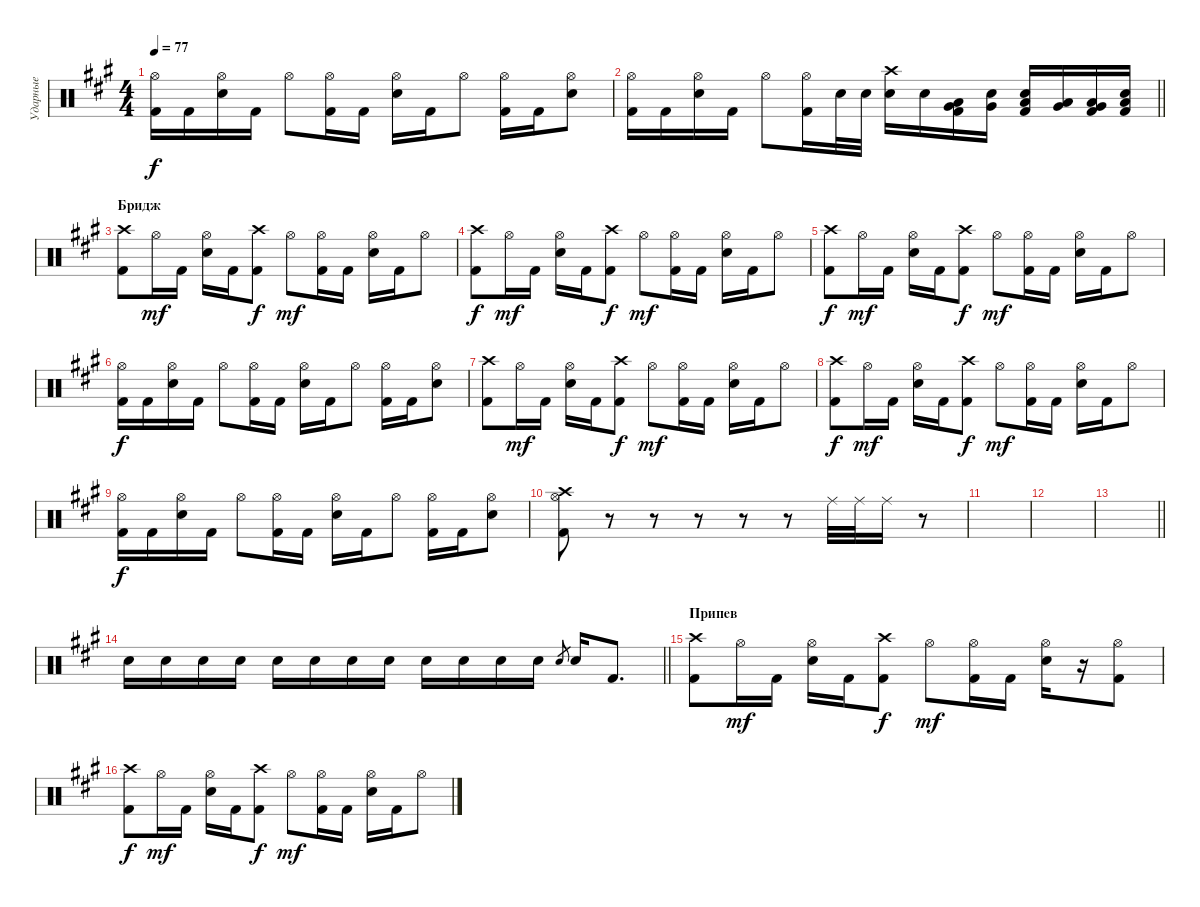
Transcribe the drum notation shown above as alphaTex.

\track ("Ударные" "Ударные") {instrument percussion}
\staff {score}
\articulation defaults
\ts (4 4)
\tempo 77
\clef neutral
\ks f#minor
("Hi-Hat (open)" "Kick (hit) 2").16{dy f} "Kick (hit) 2".16 ("Hi-Hat (open)" "Electric Snare (hit)").16 "Kick (hit) 2".16 "Hi-Hat (open)".8 ("Hi-Hat (open)" "Kick (hit) 2").16 "Kick (hit) 2".16 ("Hi-Hat (open)" "Electric Snare (hit)").16 "Kick (hit) 2".16 "Hi-Hat (open)".8 ("Hi-Hat (open)" "Kick (hit) 2").16 "Kick (hit) 2".16 ("Hi-Hat (open)" "Electric Snare (hit)").8 |
\barLineRight lightlight
("Hi-Hat (open)" "Kick (hit) 2").16 "Kick (hit) 2".16 ("Hi-Hat (open)" "Electric Snare (hit)").16 "Kick (hit) 2".16 "Hi-Hat (open)".8 ("Hi-Hat (open)" "Kick (hit) 2").16 "Electric Snare (hit)".32 "Electric Snare (hit)".32 ("Crash high (hit)" "Electric Snare (hit)").16 "Electric Snare (hit)".16 ("Very Low Tom (hit)" "Low Tom (hit)" "Kick (hit) 2").16 ("Very Low Tom (hit)" "Electric Snare (hit)").16 ("Low Floor Tom (hit)" "Electric Snare (hit)" "Kick (hit) 2").16 ("Low Floor Tom (hit)" "Very Low Tom (hit)").16 ("Very Low Tom (hit)" "Low Floor Tom (hit)" "Kick (hit) 2").16 ("Low Floor Tom (hit)" "Electric Snare (hit)" "Kick (hit) 2").16 |
\section ("" "Бридж")
("Crash high (hit)" "Kick (hit) 2").8 "Hi-Hat (open)".16{dy mf} "Kick (hit) 2".16 ("Hi-Hat (open)" "Electric Snare (hit)").16 "Kick (hit) 2".16 ("Crash high (hit)" "Kick (hit) 2").8{dy f} "Hi-Hat (open)".8{dy mf} ("Hi-Hat (open)" "Kick (hit) 2").16 "Kick (hit) 2".16 ("Hi-Hat (open)" "Electric Snare (hit)").16 "Kick (hit) 2".16 "Hi-Hat (open)".8 |
("Crash high (hit)" "Kick (hit) 2").8{dy f} "Hi-Hat (open)".16{dy mf} "Kick (hit) 2".16 ("Hi-Hat (open)" "Electric Snare (hit)").16 "Kick (hit) 2".16 ("Crash high (hit)" "Kick (hit) 2").8{dy f} "Hi-Hat (open)".8{dy mf} ("Hi-Hat (open)" "Kick (hit) 2").16 "Kick (hit) 2".16 ("Hi-Hat (open)" "Electric Snare (hit)").16 "Kick (hit) 2".16 "Hi-Hat (open)".8 |
("Crash high (hit)" "Kick (hit) 2").8{dy f} "Hi-Hat (open)".16{dy mf} "Kick (hit) 2".16 ("Hi-Hat (open)" "Electric Snare (hit)").16 "Kick (hit) 2".16 ("Crash high (hit)" "Kick (hit) 2").8{dy f} "Hi-Hat (open)".8{dy mf} ("Hi-Hat (open)" "Kick (hit) 2").16 "Kick (hit) 2".16 ("Hi-Hat (open)" "Electric Snare (hit)").16 "Kick (hit) 2".16 "Hi-Hat (open)".8 |
("Hi-Hat (open)" "Kick (hit) 2").16{dy f} "Kick (hit) 2".16 ("Hi-Hat (open)" "Electric Snare (hit)").16 "Kick (hit) 2".16 "Hi-Hat (open)".8 ("Hi-Hat (open)" "Kick (hit) 2").16 "Kick (hit) 2".16 ("Hi-Hat (open)" "Electric Snare (hit)").16 "Kick (hit) 2".16 "Hi-Hat (open)".8 ("Hi-Hat (open)" "Kick (hit) 2").16 "Kick (hit) 2".16 ("Hi-Hat (open)" "Electric Snare (hit)").8 |
("Crash high (hit)" "Kick (hit) 2").8 "Hi-Hat (open)".16{dy mf} "Kick (hit) 2".16 ("Hi-Hat (open)" "Electric Snare (hit)").16 "Kick (hit) 2".16 ("Crash high (hit)" "Kick (hit) 2").8{dy f} "Hi-Hat (open)".8{dy mf} ("Hi-Hat (open)" "Kick (hit) 2").16 "Kick (hit) 2".16 ("Hi-Hat (open)" "Electric Snare (hit)").16 "Kick (hit) 2".16 "Hi-Hat (open)".8 |
("Crash high (hit)" "Kick (hit) 2").8{dy f} "Hi-Hat (open)".16{dy mf} "Kick (hit) 2".16 ("Hi-Hat (open)" "Electric Snare (hit)").16 "Kick (hit) 2".16 ("Crash high (hit)" "Kick (hit) 2").8{dy f} "Hi-Hat (open)".8{dy mf} ("Hi-Hat (open)" "Kick (hit) 2").16 "Kick (hit) 2".16 ("Hi-Hat (open)" "Electric Snare (hit)").16 "Kick (hit) 2".16 "Hi-Hat (open)".8 |
("Hi-Hat (open)" "Kick (hit) 2").16{dy f} "Kick (hit) 2".16 ("Hi-Hat (open)" "Electric Snare (hit)").16 "Kick (hit) 2".16 "Hi-Hat (open)".8 ("Hi-Hat (open)" "Kick (hit) 2").16 "Kick (hit) 2".16 ("Hi-Hat (open)" "Electric Snare (hit)").16 "Kick (hit) 2".16 "Hi-Hat (open)".8 ("Hi-Hat (open)" "Kick (hit) 2").16 "Kick (hit) 2".16 ("Hi-Hat (open)" "Electric Snare (hit)").8 |
("Hi-Hat (open)" "Crash high (hit)" "Kick (hit) 2").8 r.8 r.8 r.8 r.8 r.8 "Ride (middle)".32 "Ride (middle)".32 "Ride (middle)".16 r.8 |
|
|
\barLineRight lightlight
|
\barLineRight lightlight "Electric Snare (hit)".16{volume 13} "Electric Snare (hit)".16 "Electric Snare (hit)".16 "Electric Snare (hit)".16 "Electric Snare (hit)".16 "Electric Snare (hit)".16 "Electric Snare (hit)".16 "Electric Snare (hit)".16 "Electric Snare (hit)".16 "Electric Snare (hit)".16 "Electric Snare (hit)".16 "Electric Snare (hit)".16 "Electric Snare (hit)".8{gr} "Electric Snare (hit)".16 "Kick (hit) 2".8{d}
|
\section ("" "Припев")
("Crash high (hit)" "Kick (hit) 2").8 "Hi-Hat (open)".16{dy mf} "Kick (hit) 2".16 ("Hi-Hat (open)" "Electric Snare (hit)").16 "Kick (hit) 2".16 ("Crash high (hit)" "Kick (hit) 2").8{dy f} "Hi-Hat (open)".8{dy mf} ("Hi-Hat (open)" "Kick (hit) 2").16 "Kick (hit) 2".16 ("Hi-Hat (open)" "Electric Snare (hit)").16 r.16 ("Hi-Hat (open)" "Kick (hit) 2").8 |
("Crash high (hit)" "Kick (hit) 2").8{dy f} "Hi-Hat (open)".16{dy mf} "Kick (hit) 2".16 ("Hi-Hat (open)" "Electric Snare (hit)").16 "Kick (hit) 2".16 ("Crash high (hit)" "Kick (hit) 2").8{dy f} "Hi-Hat (open)".8{dy mf} ("Hi-Hat (open)" "Kick (hit) 2").16 "Kick (hit) 2".16 ("Hi-Hat (open)" "Electric Snare (hit)").16 "Kick (hit) 2".16 "Hi-Hat (open)".8
